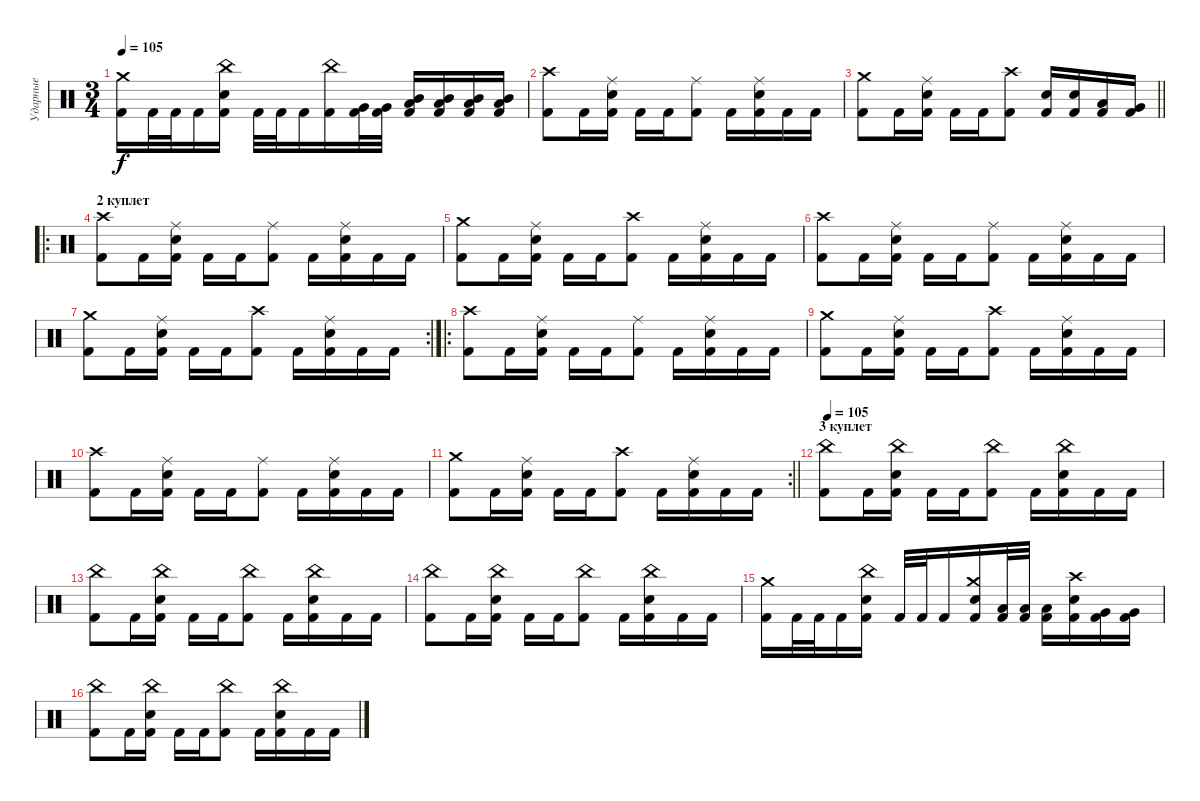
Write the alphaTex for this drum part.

\track ("Ударные" "Ударные") {instrument percussion}
\staff {score}
\articulation defaults
\ts (3 4)
\tempo 105
\clef neutral
\ks c
("Kick (hit) 2" "Crash medium (hit)").16{dy f} "Kick (hit) 2".32 "Kick (hit) 2".32 "Kick (hit) 2".16 ("Kick (hit) 2" "Snare (hit) 2" "China (hit)").16 "Kick (hit) 2".32 "Kick (hit) 2".32 "Kick (hit) 2".16 ("Kick (hit) 2" "China (hit)").16 ("Kick (hit) 2" "Very Low Tom (hit)").32 ("Kick (hit) 2" "Very Low Tom (hit)").32 ("Kick (hit) 2" "Low Tom (hit)" "Mid Tom (hit)").16 ("Kick (hit) 2" "Low Tom (hit)" "Mid Tom (hit)").16 ("Kick (hit) 2" "Low Tom (hit)" "Mid Tom (hit)").16 ("Kick (hit) 2" "Low Tom (hit)" "Mid Tom (hit)").16 |
("Kick (hit) 2" "Crash high (hit)").8 "Kick (hit) 2".16 ("Kick (hit) 2" "Snare (hit) 2" "Ride (middle)").16 "Kick (hit) 2".16 "Kick (hit) 2".16 ("Kick (hit) 2" "Ride (middle)").8 "Kick (hit) 2".16 ("Kick (hit) 2" "Snare (hit) 2" "Ride (middle)").16 "Kick (hit) 2".16 "Kick (hit) 2".16 |
\barLineRight lightlight
("Kick (hit) 2" "Crash medium (hit)").8 "Kick (hit) 2".16 ("Kick (hit) 2" "Snare (hit) 2" "Ride (middle)").16 "Kick (hit) 2".16 "Kick (hit) 2".16 ("Kick (hit) 2" "Crash high (hit)").8 ("Kick (hit) 2" "Snare (hit) 2").16 ("Kick (hit) 2" "Snare (hit) 2").16 ("Kick (hit) 2" "Low Tom (hit)").16 ("Kick (hit) 2" "Very Low Tom (hit)").16 |
\ro
\section ("" "2 куплет")
("Kick (hit) 2" "Crash high (hit)").8 "Kick (hit) 2".16 ("Kick (hit) 2" "Snare (hit) 2" "Ride (middle)").16 "Kick (hit) 2".16 "Kick (hit) 2".16 ("Kick (hit) 2" "Ride (middle)").8 "Kick (hit) 2".16 ("Kick (hit) 2" "Snare (hit) 2" "Ride (middle)").16 "Kick (hit) 2".16 "Kick (hit) 2".16 |
("Kick (hit) 2" "Crash medium (hit)").8 "Kick (hit) 2".16 ("Kick (hit) 2" "Snare (hit) 2" "Ride (middle)").16 "Kick (hit) 2".16 "Kick (hit) 2".16 ("Kick (hit) 2" "Crash high (hit)").8 "Kick (hit) 2".16 ("Kick (hit) 2" "Snare (hit) 2" "Ride (middle)").16 "Kick (hit) 2".16 "Kick (hit) 2".16 |
("Kick (hit) 2" "Crash high (hit)").8 "Kick (hit) 2".16 ("Kick (hit) 2" "Snare (hit) 2" "Ride (middle)").16 "Kick (hit) 2".16 "Kick (hit) 2".16 ("Kick (hit) 2" "Ride (middle)").8 "Kick (hit) 2".16 ("Kick (hit) 2" "Snare (hit) 2" "Ride (middle)").16 "Kick (hit) 2".16 "Kick (hit) 2".16 |
\rc 2
("Kick (hit) 2" "Crash medium (hit)").8 "Kick (hit) 2".16 ("Kick (hit) 2" "Snare (hit) 2" "Ride (middle)").16 "Kick (hit) 2".16 "Kick (hit) 2".16 ("Kick (hit) 2" "Crash high (hit)").8 "Kick (hit) 2".16 ("Kick (hit) 2" "Snare (hit) 2" "Ride (middle)").16 "Kick (hit) 2".16 "Kick (hit) 2".16 |
\ro
("Kick (hit) 2" "Crash high (hit)").8 "Kick (hit) 2".16 ("Kick (hit) 2" "Snare (hit) 2" "Ride (middle)").16 "Kick (hit) 2".16 "Kick (hit) 2".16 ("Kick (hit) 2" "Ride (middle)").8 "Kick (hit) 2".16 ("Kick (hit) 2" "Snare (hit) 2" "Ride (middle)").16 "Kick (hit) 2".16 "Kick (hit) 2".16 |
("Kick (hit) 2" "Crash medium (hit)").8 "Kick (hit) 2".16 ("Kick (hit) 2" "Snare (hit) 2" "Ride (middle)").16 "Kick (hit) 2".16 "Kick (hit) 2".16 ("Kick (hit) 2" "Crash high (hit)").8 "Kick (hit) 2".16 ("Kick (hit) 2" "Snare (hit) 2" "Ride (middle)").16 "Kick (hit) 2".16 "Kick (hit) 2".16 |
("Kick (hit) 2" "Crash high (hit)").8 "Kick (hit) 2".16 ("Kick (hit) 2" "Snare (hit) 2" "Ride (middle)").16 "Kick (hit) 2".16 "Kick (hit) 2".16 ("Kick (hit) 2" "Ride (middle)").8 "Kick (hit) 2".16 ("Kick (hit) 2" "Snare (hit) 2" "Ride (middle)").16 "Kick (hit) 2".16 "Kick (hit) 2".16 |
\rc 2
\barLineRight lightlight
("Kick (hit) 2" "Crash medium (hit)").8 "Kick (hit) 2".16 ("Kick (hit) 2" "Snare (hit) 2" "Ride (middle)").16 "Kick (hit) 2".16 "Kick (hit) 2".16 ("Kick (hit) 2" "Crash high (hit)").8 "Kick (hit) 2".16 ("Kick (hit) 2" "Snare (hit) 2" "Ride (middle)").16 "Kick (hit) 2".16 "Kick (hit) 2".16 |
\section ("" "3 куплет")
\tempo 105
("Kick (hit) 2" "China (hit)").8 "Kick (hit) 2".16 ("Kick (hit) 2" "Snare (hit) 2" "China (hit)").16 "Kick (hit) 2".16 "Kick (hit) 2".16 ("Kick (hit) 2" "China (hit)").8 "Kick (hit) 2".16 ("Kick (hit) 2" "Snare (hit) 2" "China (hit)").16 "Kick (hit) 2".16 "Kick (hit) 2".16 |
("Kick (hit) 2" "China (hit)").8 "Kick (hit) 2".16 ("Kick (hit) 2" "Snare (hit) 2" "China (hit)").16 "Kick (hit) 2".16 "Kick (hit) 2".16 ("Kick (hit) 2" "China (hit)").8 "Kick (hit) 2".16 ("Kick (hit) 2" "Snare (hit) 2" "China (hit)").16 "Kick (hit) 2".16 "Kick (hit) 2".16 |
("Kick (hit) 2" "China (hit)").8 "Kick (hit) 2".16 ("Kick (hit) 2" "Snare (hit) 2" "China (hit)").16 "Kick (hit) 2".16 "Kick (hit) 2".16 ("Kick (hit) 2" "China (hit)").8 "Kick (hit) 2".16 ("Kick (hit) 2" "Snare (hit) 2" "China (hit)").16 "Kick (hit) 2".16 "Kick (hit) 2".16 |
("Kick (hit) 2" "Crash medium (hit)").16 "Kick (hit) 2".32 "Kick (hit) 2".32 "Kick (hit) 2".16 ("Kick (hit) 2" "Snare (hit) 2" "China (hit)").16 "Kick (hit) 2".32 "Kick (hit) 2".32 "Kick (hit) 2".16 ("Kick (hit) 2" "Snare (hit) 2" "Crash medium (hit)").16 ("Kick (hit) 2" "Low Tom (hit)").32 ("Kick (hit) 2" "Low Tom (hit)").32 ("Kick (hit) 2" "Low Tom (hit)").16 ("Kick (hit) 2" "Snare (hit) 2" "Crash high (hit)").16 ("Kick (hit) 2" "Very Low Tom (hit)").16 ("Kick (hit) 2" "Very Low Tom (hit)").16 |
("Kick (hit) 2" "China (hit)").8 "Kick (hit) 2".16 ("Kick (hit) 2" "Snare (hit) 2" "China (hit)").16 "Kick (hit) 2".16 "Kick (hit) 2".16 ("Kick (hit) 2" "China (hit)").8 "Kick (hit) 2".16 ("Kick (hit) 2" "Snare (hit) 2" "China (hit)").16 "Kick (hit) 2".16 "Kick (hit) 2".16
